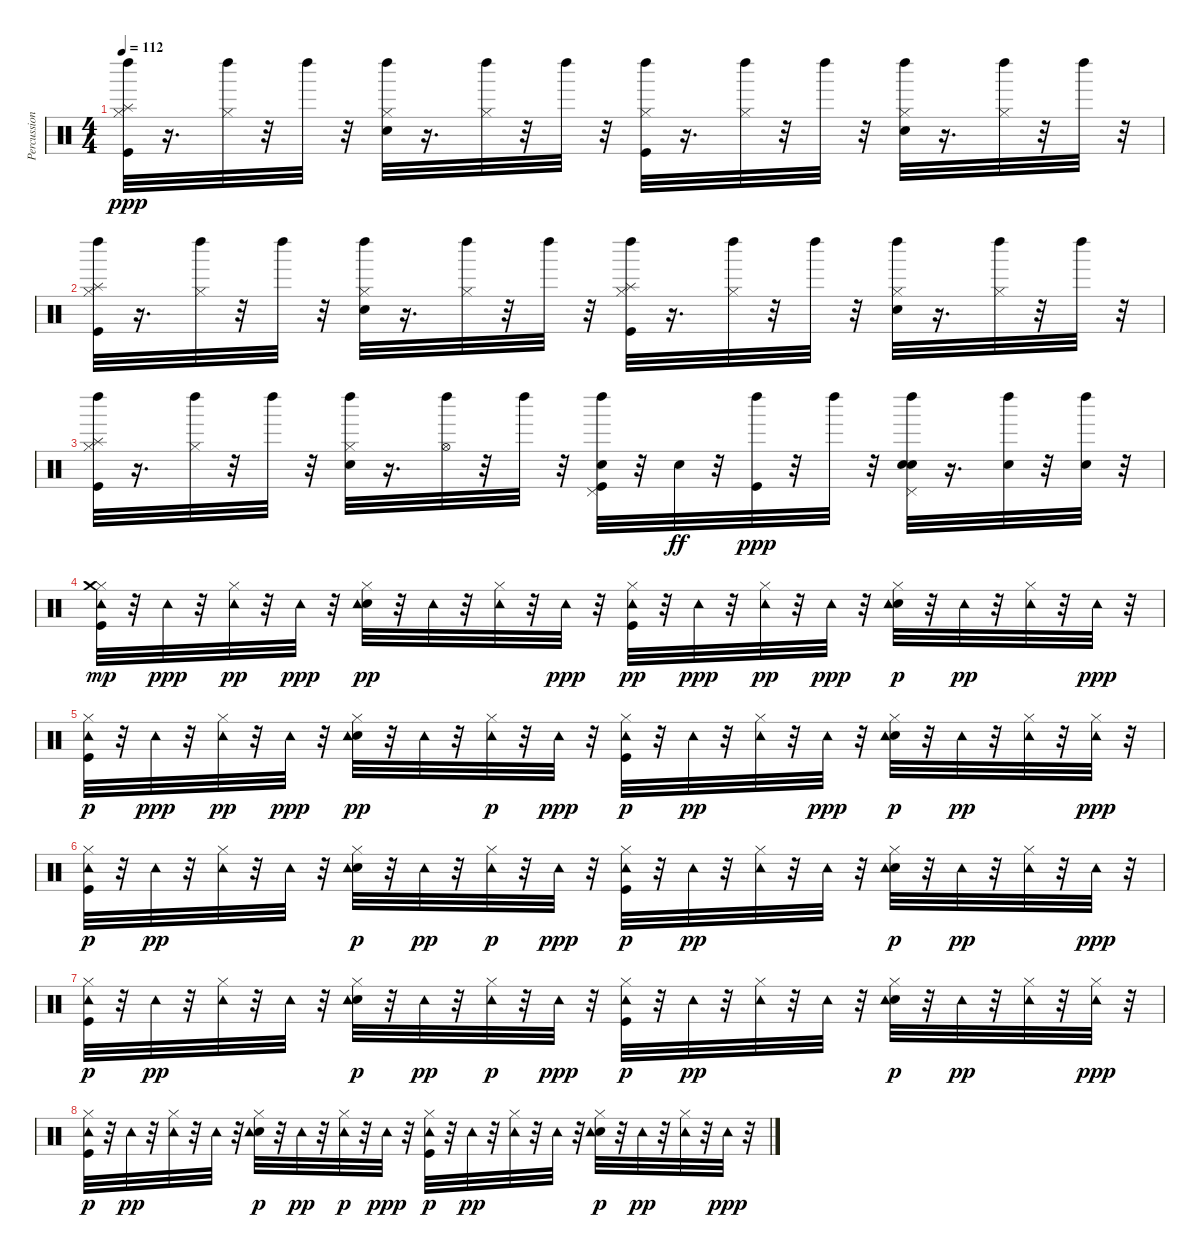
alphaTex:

\track ("Percussioni" "Percussion") {instrument percussion}
\staff {score}
\articulation defaults
\ts (4 4)
\tempo 112
\clef neutral
\ks c
("Kick (hit)" "Hi-Hat (closed)" "Splash (hit)" "Left Maraca (hit)").32{dy ppp} r.16{d} ("Hi-Hat (closed)" "Left Maraca (hit)").32 r.32 "Left Maraca (hit)".32 r.32 ("Electric Snare (hit)" "Hi-Hat (closed)" "Left Maraca (hit)").32 r.16{d} ("Hi-Hat (closed)" "Left Maraca (hit)").32 r.32 "Left Maraca (hit)".32 r.32 ("Kick (hit)" "Hi-Hat (closed)" "Left Maraca (hit)").32 r.16{d} ("Hi-Hat (closed)" "Left Maraca (hit)").32 r.32 "Left Maraca (hit)".32 r.32 ("Electric Snare (hit)" "Hi-Hat (closed)" "Left Maraca (hit)").32 r.16{d} ("Hi-Hat (closed)" "Left Maraca (hit)").32 r.32 "Left Maraca (hit)".32 r.32 |
("Kick (hit)" "Hi-Hat (closed)" "Splash (hit)" "Left Maraca (hit)").32 r.16{d} ("Hi-Hat (closed)" "Left Maraca (hit)").32 r.32 "Left Maraca (hit)".32 r.32 ("Electric Snare (hit)" "Hi-Hat (closed)" "Left Maraca (hit)").32 r.16{d} ("Hi-Hat (closed)" "Left Maraca (hit)").32 r.32 "Left Maraca (hit)".32 r.32 ("Kick (hit)" "Hi-Hat (closed)" "Splash (hit)" "Left Maraca (hit)").32 r.16{d} ("Hi-Hat (closed)" "Left Maraca (hit)").32 r.32 "Left Maraca (hit)".32 r.32 ("Electric Snare (hit)" "Hi-Hat (closed)" "Left Maraca (hit)").32 r.16{d} ("Hi-Hat (closed)" "Left Maraca (hit)").32 r.32 "Left Maraca (hit)".32 r.32 |
("Kick (hit)" "Hi-Hat (closed)" "Splash (hit)" "Left Maraca (hit)").32 r.16{d} ("Hi-Hat (closed)" "Left Maraca (hit)").32 r.32 "Left Maraca (hit)".32 r.32 ("Electric Snare (hit)" "Hi-Hat (closed)" "Left Maraca (hit)").32 r.16{d} ("Hi-Hat (open)" "Left Maraca (hit)").32 r.32 "Left Maraca (hit)".32 r.32 ("Kick (hit)" "Electric Snare (hit)" "Pedal Hi-Hat (hit)" "Left Maraca (hit)").32 r.32 "Electric Snare (hit)".32{dy ff} r.32 ("Kick (hit)" "Left Maraca (hit)").32{dy ppp} r.32 "Left Maraca (hit)".32 r.32 ("Electric Snare (hit)" "Electric Snare (hit)" "Pedal Hi-Hat (hit)" "Left Maraca (hit)").32 r.16{d} ("Electric Snare (hit)" "Left Maraca (hit)").32 r.32 ("Electric Snare (hit)" "Left Maraca (hit)").32 r.32 |
("Kick (hit)" "Hi-Hat (closed)" "Tambourine (hit)" "Crash medium (hit)").32{dy mp} r.32 "Tambourine (hit)".32{dy ppp} r.32 ("Hi-Hat (closed)" "Tambourine (hit)").32{dy pp} r.32 "Tambourine (hit)".32{dy ppp} r.32 ("Electric Snare (hit)" "Hi-Hat (closed)" "Tambourine (hit)").32{dy pp} r.32 "Tambourine (hit)".32 r.32 ("Hi-Hat (closed)" "Tambourine (hit)").32 r.32 "Tambourine (hit)".32{dy ppp} r.32 ("Kick (hit)" "Hi-Hat (closed)" "Tambourine (hit)").32{dy pp} r.32 "Tambourine (hit)".32{dy ppp} r.32 ("Hi-Hat (closed)" "Tambourine (hit)").32{dy pp} r.32 "Tambourine (hit)".32{dy ppp} r.32 ("Electric Snare (hit)" "Hi-Hat (closed)" "Tambourine (hit)").32{dy p} r.32 "Tambourine (hit)".32{dy pp} r.32 ("Hi-Hat (closed)" "Tambourine (hit)").32 r.32 "Tambourine (hit)".32{dy ppp} r.32 |
("Kick (hit)" "Hi-Hat (closed)" "Tambourine (hit)").32{dy p} r.32 "Tambourine (hit)".32{dy ppp} r.32 ("Hi-Hat (closed)" "Tambourine (hit)").32{dy pp} r.32 "Tambourine (hit)".32{dy ppp} r.32 ("Electric Snare (hit)" "Hi-Hat (closed)" "Tambourine (hit)").32{dy pp} r.32 "Tambourine (hit)".32 r.32 ("Hi-Hat (closed)" "Tambourine (hit)").32{dy p} r.32 "Tambourine (hit)".32{dy ppp} r.32 ("Kick (hit)" "Hi-Hat (closed)" "Tambourine (hit)").32{dy p} r.32 "Tambourine (hit)".32{dy pp} r.32 ("Hi-Hat (closed)" "Tambourine (hit)").32 r.32 "Tambourine (hit)".32{dy ppp} r.32 ("Electric Snare (hit)" "Hi-Hat (closed)" "Tambourine (hit)").32{dy p} r.32 "Tambourine (hit)".32{dy pp} r.32 ("Hi-Hat (closed)" "Tambourine (hit)").32 r.32 ("Hi-Hat (closed)" "Tambourine (hit)").32{dy ppp} r.32 |
("Kick (hit)" "Hi-Hat (closed)" "Tambourine (hit)").32{dy p} r.32 "Tambourine (hit)".32{dy pp} r.32 ("Hi-Hat (closed)" "Tambourine (hit)").32 r.32 "Tambourine (hit)".32 r.32 ("Electric Snare (hit)" "Hi-Hat (closed)" "Tambourine (hit)").32{dy p} r.32 "Tambourine (hit)".32{dy pp} r.32 ("Hi-Hat (closed)" "Tambourine (hit)").32{dy p} r.32 "Tambourine (hit)".32{dy ppp} r.32 ("Kick (hit)" "Hi-Hat (closed)" "Tambourine (hit)").32{dy p} r.32 "Tambourine (hit)".32{dy pp} r.32 ("Hi-Hat (closed)" "Tambourine (hit)").32 r.32 "Tambourine (hit)".32 r.32 ("Electric Snare (hit)" "Hi-Hat (closed)" "Tambourine (hit)").32{dy p} r.32 "Tambourine (hit)".32{dy pp} r.32 ("Hi-Hat (closed)" "Tambourine (hit)").32 r.32 "Tambourine (hit)".32{dy ppp} r.32 |
("Kick (hit)" "Hi-Hat (closed)" "Tambourine (hit)").32{dy p} r.32 "Tambourine (hit)".32{dy pp} r.32 ("Hi-Hat (closed)" "Tambourine (hit)").32 r.32 "Tambourine (hit)".32 r.32 ("Electric Snare (hit)" "Hi-Hat (closed)" "Tambourine (hit)").32{dy p} r.32 "Tambourine (hit)".32{dy pp} r.32 ("Hi-Hat (closed)" "Tambourine (hit)").32{dy p} r.32 "Tambourine (hit)".32{dy ppp} r.32 ("Kick (hit)" "Hi-Hat (closed)" "Tambourine (hit)").32{dy p} r.32 "Tambourine (hit)".32{dy pp} r.32 ("Hi-Hat (closed)" "Tambourine (hit)").32 r.32 "Tambourine (hit)".32 r.32 ("Electric Snare (hit)" "Hi-Hat (closed)" "Tambourine (hit)").32{dy p} r.32 "Tambourine (hit)".32{dy pp} r.32 ("Hi-Hat (closed)" "Tambourine (hit)").32 r.32 ("Hi-Hat (closed)" "Tambourine (hit)").32{dy ppp} r.32 |
("Kick (hit)" "Hi-Hat (closed)" "Tambourine (hit)").32{dy p} r.32 "Tambourine (hit)".32{dy pp} r.32 ("Hi-Hat (closed)" "Tambourine (hit)").32 r.32 "Tambourine (hit)".32 r.32 ("Electric Snare (hit)" "Hi-Hat (closed)" "Tambourine (hit)").32{dy p} r.32 "Tambourine (hit)".32{dy pp} r.32 ("Hi-Hat (closed)" "Tambourine (hit)").32{dy p} r.32 "Tambourine (hit)".32{dy ppp} r.32 ("Kick (hit)" "Hi-Hat (closed)" "Tambourine (hit)").32{dy p} r.32 "Tambourine (hit)".32{dy pp} r.32 ("Hi-Hat (closed)" "Tambourine (hit)").32 r.32 "Tambourine (hit)".32 r.32 ("Electric Snare (hit)" "Hi-Hat (closed)" "Tambourine (hit)").32{dy p} r.32 "Tambourine (hit)".32{dy pp} r.32 ("Hi-Hat (closed)" "Tambourine (hit)").32 r.32 "Tambourine (hit)".32{dy ppp} r.32
